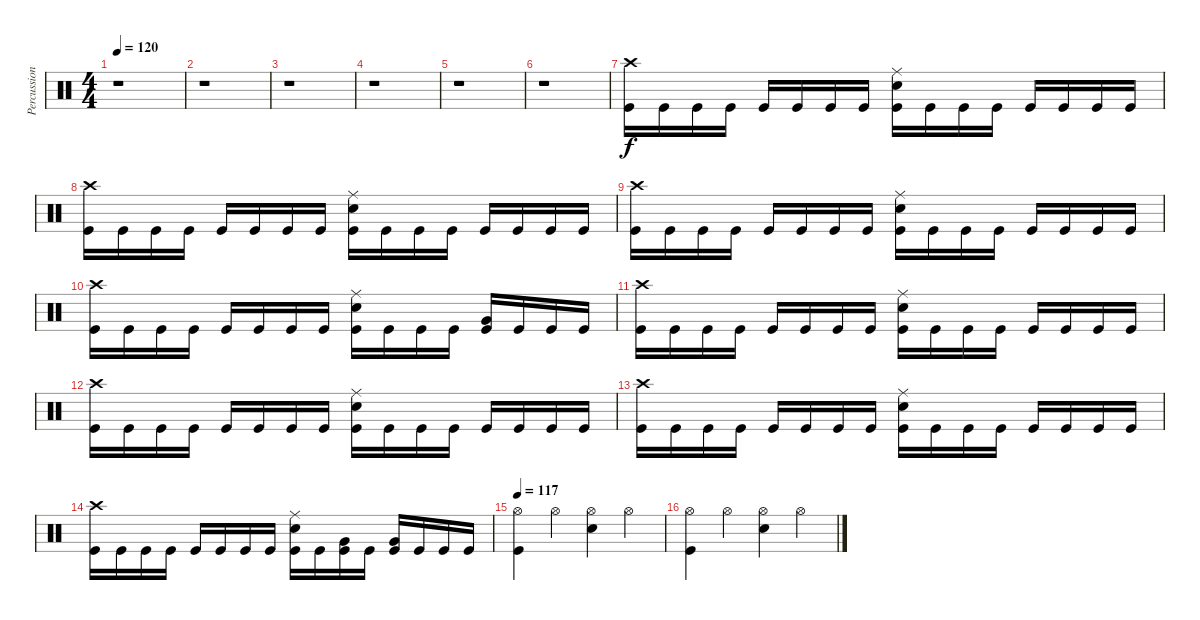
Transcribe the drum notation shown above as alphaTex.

\track ("Percussion" "Percussion") {instrument percussion}
\staff {score}
\articulation defaults
\ts (4 4)
\tempo 120
\clef neutral
\ks c
r.1{dy f} |
r.1 |
r.1 |
r.1 |
r.1 |
r.1 |
("Crash high (hit)" "Kick (hit)").16 "Kick (hit)".16 "Kick (hit)".16 "Kick (hit)".16 "Kick (hit)".16 "Kick (hit)".16 "Kick (hit)".16 "Kick (hit)".16 ("Electric Snare (hit)" "Ride (middle)" "Kick (hit)").16 "Kick (hit)".16 "Kick (hit)".16 "Kick (hit)".16 "Kick (hit)".16 "Kick (hit)".16 "Kick (hit)".16 "Kick (hit)".16 |
("Crash high (hit)" "Kick (hit)").16 "Kick (hit)".16 "Kick (hit)".16 "Kick (hit)".16 "Kick (hit)".16 "Kick (hit)".16 "Kick (hit)".16 "Kick (hit)".16 ("Electric Snare (hit)" "Ride (middle)" "Kick (hit)").16 "Kick (hit)".16 "Kick (hit)".16 "Kick (hit)".16 "Kick (hit)".16 "Kick (hit)".16 "Kick (hit)".16 "Kick (hit)".16 |
("Crash high (hit)" "Kick (hit)").16 "Kick (hit)".16 "Kick (hit)".16 "Kick (hit)".16 "Kick (hit)".16 "Kick (hit)".16 "Kick (hit)".16 "Kick (hit)".16 ("Electric Snare (hit)" "Ride (middle)" "Kick (hit)").16 "Kick (hit)".16 "Kick (hit)".16 "Kick (hit)".16 "Kick (hit)".16 "Kick (hit)".16 "Kick (hit)".16 "Kick (hit)".16 |
("Crash high (hit)" "Kick (hit)").16 "Kick (hit)".16 "Kick (hit)".16 "Kick (hit)".16 "Kick (hit)".16 "Kick (hit)".16 "Kick (hit)".16 "Kick (hit)".16 ("Electric Snare (hit)" "Ride (middle)" "Kick (hit)").16 "Kick (hit)".16 "Kick (hit)".16 "Kick (hit)".16 ("Very Low Tom (hit)" "Kick (hit)").16 "Kick (hit)".16 "Kick (hit)".16 "Kick (hit)".16 |
("Crash high (hit)" "Kick (hit)").16 "Kick (hit)".16 "Kick (hit)".16 "Kick (hit)".16 "Kick (hit)".16 "Kick (hit)".16 "Kick (hit)".16 "Kick (hit)".16 ("Electric Snare (hit)" "Ride (middle)" "Kick (hit)").16 "Kick (hit)".16 "Kick (hit)".16 "Kick (hit)".16 "Kick (hit)".16 "Kick (hit)".16 "Kick (hit)".16 "Kick (hit)".16 |
("Crash high (hit)" "Kick (hit)").16 "Kick (hit)".16 "Kick (hit)".16 "Kick (hit)".16 "Kick (hit)".16 "Kick (hit)".16 "Kick (hit)".16 "Kick (hit)".16 ("Electric Snare (hit)" "Ride (middle)" "Kick (hit)").16 "Kick (hit)".16 "Kick (hit)".16 "Kick (hit)".16 "Kick (hit)".16 "Kick (hit)".16 "Kick (hit)".16 "Kick (hit)".16 |
("Crash high (hit)" "Kick (hit)").16 "Kick (hit)".16 "Kick (hit)".16 "Kick (hit)".16 "Kick (hit)".16 "Kick (hit)".16 "Kick (hit)".16 "Kick (hit)".16 ("Electric Snare (hit)" "Ride (middle)" "Kick (hit)").16 "Kick (hit)".16 "Kick (hit)".16 "Kick (hit)".16 "Kick (hit)".16 "Kick (hit)".16 "Kick (hit)".16 "Kick (hit)".16 |
("Crash high (hit)" "Kick (hit)").16 "Kick (hit)".16 "Kick (hit)".16 "Kick (hit)".16 "Kick (hit)".16 "Kick (hit)".16 "Kick (hit)".16 "Kick (hit)".16 ("Electric Snare (hit)" "Ride (middle)" "Kick (hit)").16 "Kick (hit)".16 ("Very Low Tom (hit)" "Kick (hit)").16 "Kick (hit)".16 ("Very Low Tom (hit)" "Kick (hit)").16 "Kick (hit)".16 "Kick (hit)".16 "Kick (hit)".16 |
\tempo 117
("Hi-Hat (open)" "Kick (hit)").4 "Hi-Hat (open)".4 ("Hi-Hat (open)" "Electric Snare (hit)").4 "Hi-Hat (open)".4 |
("Hi-Hat (open)" "Kick (hit)").4 "Hi-Hat (open)".4 ("Hi-Hat (open)" "Electric Snare (hit)").4 "Hi-Hat (open)".4
